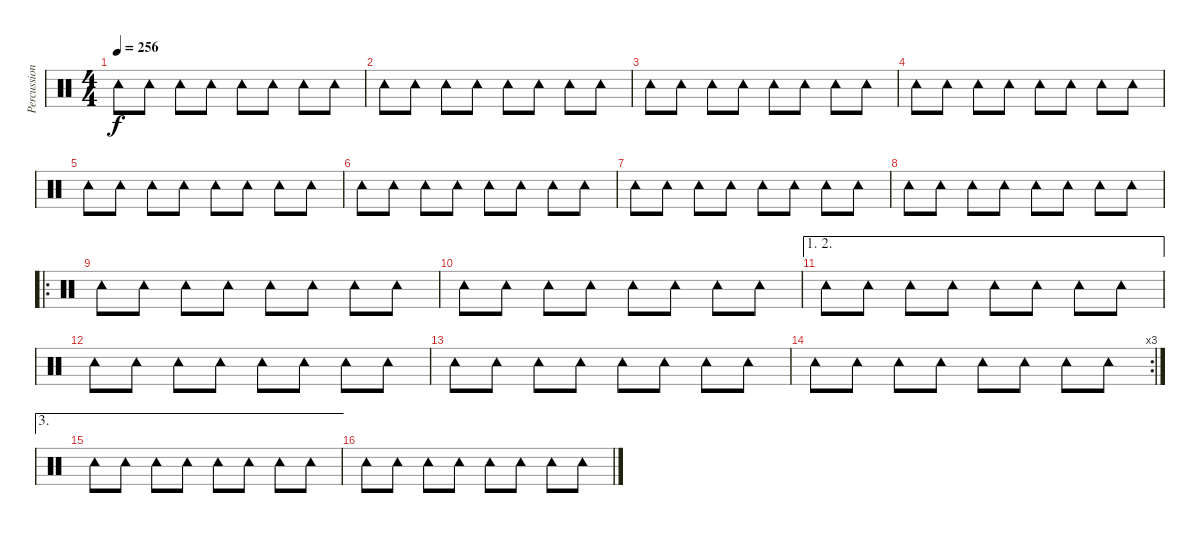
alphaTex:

\track ("Percussions" "Percussion") {instrument percussion}
\staff {score}
\articulation defaults
\ts (4 4)
\tempo 256
\clef neutral
\ks c "Tambourine (hit)".8{dy f} "Tambourine (hit)".8 "Tambourine (hit)".8 "Tambourine (hit)".8 "Tambourine (hit)".8 "Tambourine (hit)".8 "Tambourine (hit)".8 "Tambourine (hit)".8
|
"Tambourine (hit)".8 "Tambourine (hit)".8 "Tambourine (hit)".8 "Tambourine (hit)".8 "Tambourine (hit)".8 "Tambourine (hit)".8 "Tambourine (hit)".8 "Tambourine (hit)".8 |
"Tambourine (hit)".8 "Tambourine (hit)".8 "Tambourine (hit)".8 "Tambourine (hit)".8 "Tambourine (hit)".8 "Tambourine (hit)".8 "Tambourine (hit)".8 "Tambourine (hit)".8 |
"Tambourine (hit)".8 "Tambourine (hit)".8 "Tambourine (hit)".8 "Tambourine (hit)".8 "Tambourine (hit)".8 "Tambourine (hit)".8 "Tambourine (hit)".8 "Tambourine (hit)".8 |
"Tambourine (hit)".8 "Tambourine (hit)".8 "Tambourine (hit)".8 "Tambourine (hit)".8 "Tambourine (hit)".8 "Tambourine (hit)".8 "Tambourine (hit)".8 "Tambourine (hit)".8 |
"Tambourine (hit)".8 "Tambourine (hit)".8 "Tambourine (hit)".8 "Tambourine (hit)".8 "Tambourine (hit)".8 "Tambourine (hit)".8 "Tambourine (hit)".8 "Tambourine (hit)".8 |
"Tambourine (hit)".8 "Tambourine (hit)".8 "Tambourine (hit)".8 "Tambourine (hit)".8 "Tambourine (hit)".8 "Tambourine (hit)".8 "Tambourine (hit)".8 "Tambourine (hit)".8 |
"Tambourine (hit)".8 "Tambourine (hit)".8 "Tambourine (hit)".8 "Tambourine (hit)".8 "Tambourine (hit)".8 "Tambourine (hit)".8 "Tambourine (hit)".8 "Tambourine (hit)".8 |
\ro "Tambourine (hit)".8 "Tambourine (hit)".8 "Tambourine (hit)".8 "Tambourine (hit)".8 "Tambourine (hit)".8 "Tambourine (hit)".8 "Tambourine (hit)".8 "Tambourine (hit)".8
|
"Tambourine (hit)".8 "Tambourine (hit)".8 "Tambourine (hit)".8 "Tambourine (hit)".8 "Tambourine (hit)".8 "Tambourine (hit)".8 "Tambourine (hit)".8 "Tambourine (hit)".8 |
\ae (1 2)
"Tambourine (hit)".8 "Tambourine (hit)".8 "Tambourine (hit)".8 "Tambourine (hit)".8 "Tambourine (hit)".8 "Tambourine (hit)".8 "Tambourine (hit)".8 "Tambourine (hit)".8 |
"Tambourine (hit)".8 "Tambourine (hit)".8 "Tambourine (hit)".8 "Tambourine (hit)".8 "Tambourine (hit)".8 "Tambourine (hit)".8 "Tambourine (hit)".8 "Tambourine (hit)".8 |
"Tambourine (hit)".8 "Tambourine (hit)".8 "Tambourine (hit)".8 "Tambourine (hit)".8 "Tambourine (hit)".8 "Tambourine (hit)".8 "Tambourine (hit)".8 "Tambourine (hit)".8 |
\rc 3 "Tambourine (hit)".8 "Tambourine (hit)".8 "Tambourine (hit)".8 "Tambourine (hit)".8 "Tambourine (hit)".8 "Tambourine (hit)".8 "Tambourine (hit)".8 "Tambourine (hit)".8
|
\ae 3 "Tambourine (hit)".8 "Tambourine (hit)".8 "Tambourine (hit)".8 "Tambourine (hit)".8 "Tambourine (hit)".8 "Tambourine (hit)".8 "Tambourine (hit)".8 "Tambourine (hit)".8
|
"Tambourine (hit)".8 "Tambourine (hit)".8 "Tambourine (hit)".8 "Tambourine (hit)".8 "Tambourine (hit)".8 "Tambourine (hit)".8 "Tambourine (hit)".8 "Tambourine (hit)".8
